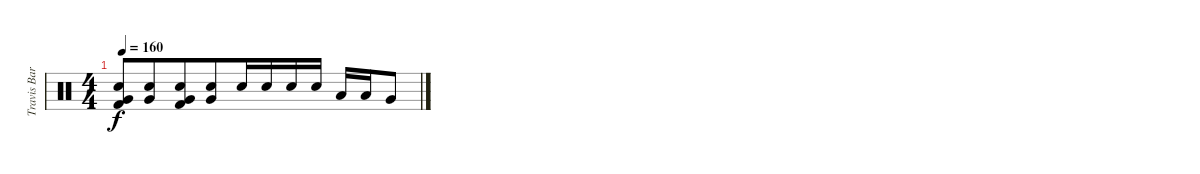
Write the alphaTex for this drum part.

\track ("Travis Barker - Drums" "Travis Bar") {instrument percussion}
\staff {score}
\articulation defaults
\ts (4 4)
\tempo 160
\clef neutral
\ks c
("Electric Snare (hit)" "Very Low Tom (hit)" "Kick (hit) 2").8{dy f} ("Electric Snare (hit)" "Very Low Tom (hit)").8{beam merge} ("Electric Snare (hit)" "Very Low Tom (hit)" "Kick (hit) 2").8 ("Electric Snare (hit)" "Very Low Tom (hit)").8{beam merge} "Electric Snare (hit)".16 "Electric Snare (hit)".16 "Electric Snare (hit)".16 "Electric Snare (hit)".16 "Low Tom (hit)".16 "Low Tom (hit)".16{beam merge} "Very Low Tom (hit)".8
